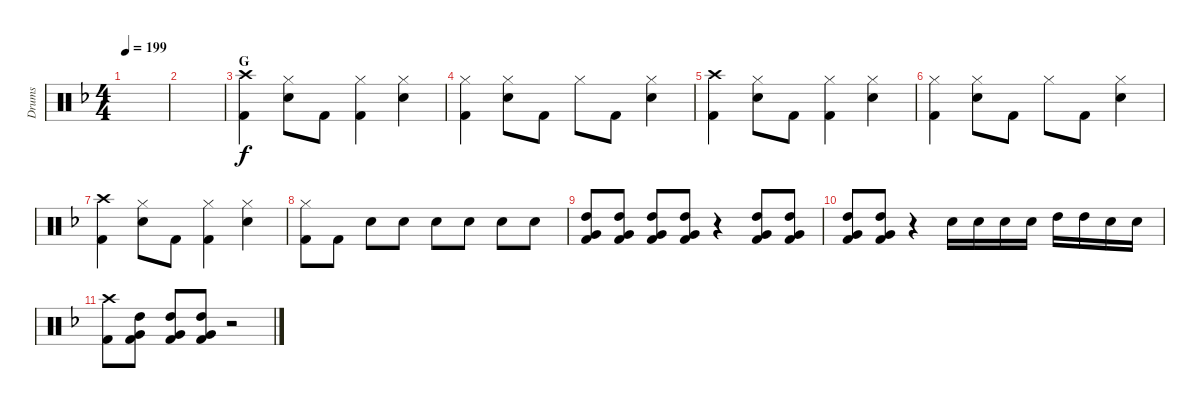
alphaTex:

\track ("Drums" "Drums") {instrument percussion}
\staff {score}
\articulation defaults
\ts (4 4)
\tempo 199
\clef neutral
\ks f
|
|
\section ("" "G")
("Crash high (hit)" "Kick (hit) 2").4 ("Hi-Hat (closed)" "Snare (hit) 2").8 "Kick (hit) 2".8 ("Hi-Hat (closed)" "Kick (hit) 2").4 ("Hi-Hat (closed)" "Snare (hit) 2").4 |
("Hi-Hat (closed)" "Kick (hit) 2").4 ("Hi-Hat (closed)" "Snare (hit) 2").8 "Kick (hit) 2".8 "Hi-Hat (closed)".8 "Kick (hit) 2".8 ("Hi-Hat (closed)" "Snare (hit) 2").4 |
("Crash high (hit)" "Kick (hit) 2").4 ("Hi-Hat (closed)" "Snare (hit) 2").8 "Kick (hit) 2".8 ("Hi-Hat (closed)" "Kick (hit) 2").4 ("Hi-Hat (closed)" "Snare (hit) 2").4 |
("Hi-Hat (closed)" "Kick (hit) 2").4 ("Hi-Hat (closed)" "Snare (hit) 2").8 "Kick (hit) 2".8 "Hi-Hat (closed)".8 "Kick (hit) 2".8 ("Hi-Hat (closed)" "Snare (hit) 2").4 |
("Crash high (hit)" "Kick (hit) 2").4 ("Hi-Hat (closed)" "Snare (hit) 2").8 "Kick (hit) 2".8 ("Hi-Hat (closed)" "Kick (hit) 2").4 ("Hi-Hat (closed)" "Snare (hit) 2").4 |
("Hi-Hat (closed)" "Kick (hit) 2").8 "Kick (hit) 2".8 "Snare (hit) 2".8 "Snare (hit) 2".8 "Snare (hit) 2".8 "Snare (hit) 2".8 "Snare (hit) 2".8 "Snare (hit) 2".8 |
("High Tom (hit)" "Very Low Tom (hit)" "Kick (hit) 2").8{volume 8} ("High Tom (hit)" "Very Low Tom (hit)" "Kick (hit) 2").8 ("High Tom (hit)" "Very Low Tom (hit)" "Kick (hit) 2").8 ("High Tom (hit)" "Very Low Tom (hit)" "Kick (hit) 2").8 r.4 ("High Tom (hit)" "Very Low Tom (hit)" "Kick (hit) 2").8 ("High Tom (hit)" "Very Low Tom (hit)" "Kick (hit) 2").8 |
("High Tom (hit)" "Very Low Tom (hit)" "Kick (hit) 2").8 ("High Tom (hit)" "Very Low Tom (hit)" "Kick (hit) 2").8 r.4 "Snare (hit) 2".16 "Snare (hit) 2".16 "Snare (hit) 2".16 "Snare (hit) 2".16 "High Tom (hit)".16 "High Tom (hit)".16 "Snare (hit) 2".16 "Snare (hit) 2".16 |
("Crash high (hit)" "Kick (hit) 2").8 ("High Tom (hit)" "Very Low Tom (hit)" "Kick (hit) 2").8 ("High Tom (hit)" "Very Low Tom (hit)" "Kick (hit) 2").8 ("High Tom (hit)" "Very Low Tom (hit)" "Kick (hit) 2").8 r.2
